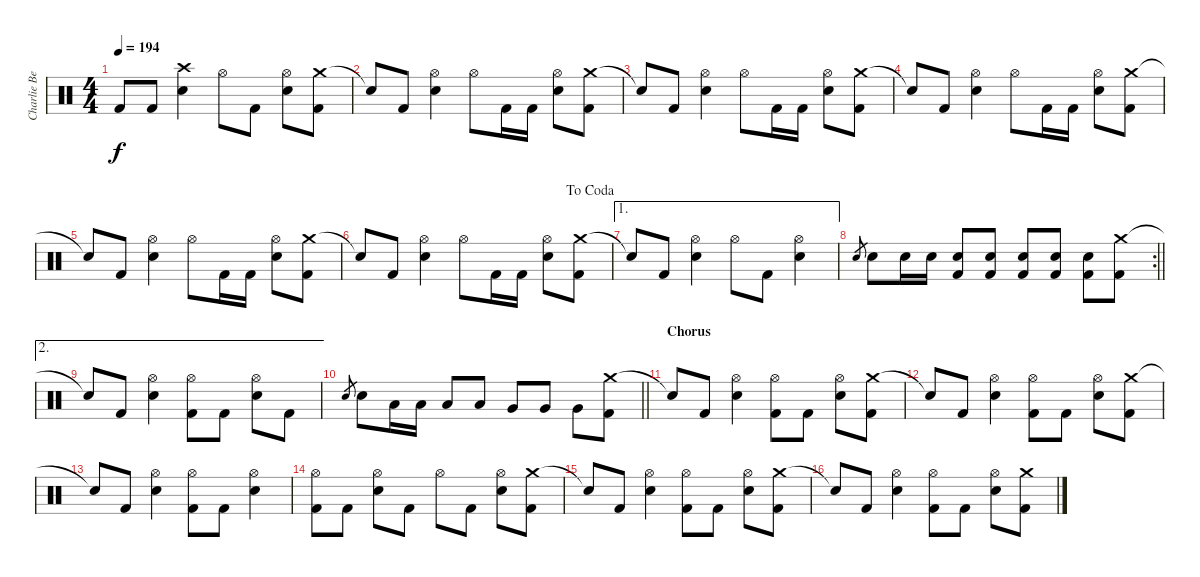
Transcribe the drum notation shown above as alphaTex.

\track ("Charlie Benate " "Charlie Be") {instrument percussion}
\staff {score}
\articulation defaults
\ts (4 4)
\tempo 194
\clef neutral
\ks c "Kick (hit) 2".8{dy f} "Kick (hit) 2".8
("Crash high (hit)" "Snare (hit) 2").4 "Hi-Hat (open)".8 "Kick (hit) 2".8 ("Hi-Hat (open)" "Snare (hit) 2").8 ("Crash medium (hit)" "Kick (hit) 2").8 |
"Snare (hit)"{t}.8 "Kick (hit) 2".8 ("Hi-Hat (open)" "Snare (hit) 2").4 "Hi-Hat (open)".8 "Kick (hit) 2".16 "Kick (hit) 2".16 ("Hi-Hat (open)" "Snare (hit) 2").8 ("Crash medium (hit)" "Kick (hit) 2").8 |
"Snare (hit)"{t}.8 "Kick (hit) 2".8 ("Hi-Hat (open)" "Snare (hit) 2").4 "Hi-Hat (open)".8 "Kick (hit) 2".16 "Kick (hit) 2".16 ("Hi-Hat (open)" "Snare (hit) 2").8 ("Crash medium (hit)" "Kick (hit) 2").8 |
"Snare (hit)"{t}.8 "Kick (hit) 2".8 ("Hi-Hat (open)" "Snare (hit) 2").4 "Hi-Hat (open)".8 "Kick (hit) 2".16 "Kick (hit) 2".16 ("Hi-Hat (open)" "Snare (hit) 2").8 ("Crash medium (hit)" "Kick (hit) 2").8 |
"Snare (hit)"{t}.8 "Kick (hit) 2".8 ("Hi-Hat (open)" "Snare (hit) 2").4 "Hi-Hat (open)".8 "Kick (hit) 2".16 "Kick (hit) 2".16 ("Hi-Hat (open)" "Snare (hit) 2").8 ("Crash medium (hit)" "Kick (hit) 2").8 |
\jump dacoda "Snare (hit)"{t}.8 "Kick (hit) 2".8
("Hi-Hat (open)" "Snare (hit) 2").4 "Hi-Hat (open)".8 "Kick (hit) 2".16 "Kick (hit) 2".16 ("Hi-Hat (open)" "Snare (hit) 2").8 ("Crash medium (hit)" "Kick (hit) 2").8 |
\ae 1 "Snare (hit)"{t}.8 "Kick (hit) 2".8
("Hi-Hat (open)" "Snare (hit) 2").4 "Hi-Hat (open)".8 "Kick (hit) 2".8 ("Hi-Hat (open)" "Snare (hit) 2").4 |
\rc 2
\barLineRight lightlight "Snare (hit) 2".8{gr} "Snare (hit) 2".8 "Snare (hit) 2".16 "Snare (hit) 2".16
("Snare (hit) 2" "Kick (hit) 2").8 ("Snare (hit) 2" "Kick (hit) 2").8 ("Snare (hit) 2" "Kick (hit) 2").8 ("Snare (hit) 2" "Kick (hit) 2").8 ("Snare (hit) 2" "Kick (hit) 2").8 ("Crash medium (hit)" "Kick (hit) 2").8 |
\ae 2 "Snare (hit)"{t}.8 "Kick (hit) 2".8
("Hi-Hat (open)" "Snare (hit) 2").4 ("Hi-Hat (open)" "Kick (hit) 2").8 "Kick (hit) 2".8 ("Hi-Hat (open)" "Snare (hit) 2").8 "Kick (hit) 2".8 |
\barLineRight lightlight "Snare (hit) 2".8{gr} "Snare (hit) 2".8 "Low Tom (hit)".16 "Low Tom (hit)".16 "Low Tom (hit)".8 "Low Tom (hit)".8 "Very Low Tom (hit)".8 "Very Low Tom (hit)".8 "Very Low Tom (hit)".8
("Crash medium (hit)" "Kick (hit) 2").8 |
\section ("" "Chorus")
"Snare (hit)"{t}.8 "Kick (hit) 2".8 ("Hi-Hat (open)" "Snare (hit) 2").4 ("Hi-Hat (open)" "Kick (hit) 2").8 "Kick (hit) 2".8 ("Hi-Hat (open)" "Snare (hit) 2").8 ("Crash medium (hit)" "Kick (hit) 2").8 |
"Snare (hit)"{t}.8 "Kick (hit) 2".8 ("Hi-Hat (open)" "Snare (hit) 2").4 ("Hi-Hat (open)" "Kick (hit) 2").8 "Kick (hit) 2".8 ("Hi-Hat (open)" "Snare (hit) 2").8 ("Crash medium (hit)" "Kick (hit) 2").8 |
"Snare (hit)"{t}.8 "Kick (hit) 2".8 ("Hi-Hat (open)" "Snare (hit) 2").4 ("Hi-Hat (open)" "Kick (hit) 2").8 "Kick (hit) 2".8 ("Hi-Hat (open)" "Snare (hit) 2").4 |
("Hi-Hat (open)" "Kick (hit) 2").8 "Kick (hit) 2".8 ("Hi-Hat (open)" "Snare (hit) 2").8 "Kick (hit) 2".8 "Hi-Hat (open)".8 "Kick (hit) 2".8 ("Hi-Hat (open)" "Snare (hit) 2").8 ("Crash medium (hit)" "Kick (hit) 2").8 |
"Snare (hit)"{t}.8 "Kick (hit) 2".8 ("Hi-Hat (open)" "Snare (hit) 2").4 ("Hi-Hat (open)" "Kick (hit) 2").8 "Kick (hit) 2".8 ("Hi-Hat (open)" "Snare (hit) 2").8 ("Crash medium (hit)" "Kick (hit) 2").8 |
"Snare (hit)"{t}.8 "Kick (hit) 2".8 ("Hi-Hat (open)" "Snare (hit) 2").4 ("Hi-Hat (open)" "Kick (hit) 2").8 "Kick (hit) 2".8 ("Hi-Hat (open)" "Snare (hit) 2").8 ("Crash medium (hit)" "Kick (hit) 2").8
